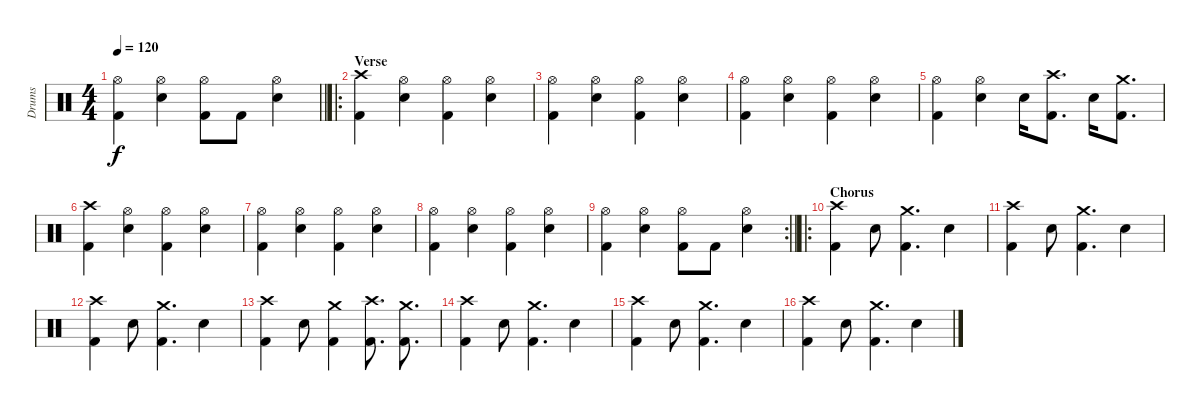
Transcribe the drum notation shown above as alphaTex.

\track ("Drums" "Drums") {instrument percussion}
\staff {score}
\articulation defaults
\ts (4 4)
\tempo 120
\clef neutral
\barLineRight lightlight
\ks c
("Kick (hit) 2" "Hi-Hat (open)").4{dy f} ("Snare (hit) 2" "Hi-Hat (open)").4 ("Kick (hit) 2" "Hi-Hat (open)").8 "Kick (hit) 2".8 ("Snare (hit) 2" "Hi-Hat (open)").4 |
\ro
\section ("" "Verse")
("Kick (hit) 2" "Crash high (hit)").4 ("Snare (hit) 2" "Hi-Hat (open)").4 ("Kick (hit) 2" "Hi-Hat (open)").4 ("Snare (hit) 2" "Hi-Hat (open)").4 |
("Kick (hit) 2" "Hi-Hat (open)").4 ("Snare (hit) 2" "Hi-Hat (open)").4 ("Kick (hit) 2" "Hi-Hat (open)").4 ("Snare (hit) 2" "Hi-Hat (open)").4 |
("Kick (hit) 2" "Hi-Hat (open)").4 ("Snare (hit) 2" "Hi-Hat (open)").4 ("Kick (hit) 2" "Hi-Hat (open)").4 ("Snare (hit) 2" "Hi-Hat (open)").4 |
("Kick (hit) 2" "Hi-Hat (open)").4 ("Snare (hit) 2" "Hi-Hat (open)").4 "Snare (hit) 2".16 ("Kick (hit) 2" "Crash high (hit)").8{d} "Snare (hit) 2".16 ("Kick (hit) 2" "Crash medium (hit)").8{d} |
("Kick (hit) 2" "Crash high (hit)").4 ("Snare (hit) 2" "Hi-Hat (open)").4 ("Kick (hit) 2" "Hi-Hat (open)").4 ("Snare (hit) 2" "Hi-Hat (open)").4 |
("Kick (hit) 2" "Hi-Hat (open)").4 ("Snare (hit) 2" "Hi-Hat (open)").4 ("Kick (hit) 2" "Hi-Hat (open)").4 ("Snare (hit) 2" "Hi-Hat (open)").4 |
("Kick (hit) 2" "Hi-Hat (open)").4 ("Snare (hit) 2" "Hi-Hat (open)").4 ("Kick (hit) 2" "Hi-Hat (open)").4 ("Snare (hit) 2" "Hi-Hat (open)").4 |
\rc 2
\barLineRight lightlight
("Kick (hit) 2" "Hi-Hat (open)").4 ("Snare (hit) 2" "Hi-Hat (open)").4 ("Kick (hit) 2" "Hi-Hat (open)").8 "Kick (hit) 2".8 ("Snare (hit) 2" "Hi-Hat (open)").4 |
\ro
\section ("" "Chorus")
("Kick (hit) 2" "Crash high (hit)").4 "Snare (hit) 2".8 ("Kick (hit) 2" "Crash medium (hit)").4{d} "Snare (hit) 2".4 |
("Kick (hit) 2" "Crash high (hit)").4 "Snare (hit) 2".8 ("Kick (hit) 2" "Crash medium (hit)").4{d} "Snare (hit) 2".4 |
("Kick (hit) 2" "Crash high (hit)").4 "Snare (hit) 2".8 ("Kick (hit) 2" "Crash medium (hit)").4{d} "Snare (hit) 2".4 |
("Kick (hit) 2" "Crash high (hit)").4 "Snare (hit) 2".8 ("Kick (hit) 2" "Crash medium (hit)").4 ("Kick (hit) 2" "Crash high (hit)").8{d} ("Kick (hit) 2" "Crash medium (hit)").8{d} |
("Kick (hit) 2" "Crash high (hit)").4 "Snare (hit) 2".8 ("Kick (hit) 2" "Crash medium (hit)").4{d} "Snare (hit) 2".4 |
("Kick (hit) 2" "Crash high (hit)").4 "Snare (hit) 2".8 ("Kick (hit) 2" "Crash medium (hit)").4{d} "Snare (hit) 2".4 |
("Kick (hit) 2" "Crash high (hit)").4 "Snare (hit) 2".8 ("Kick (hit) 2" "Crash medium (hit)").4{d} "Snare (hit) 2".4
